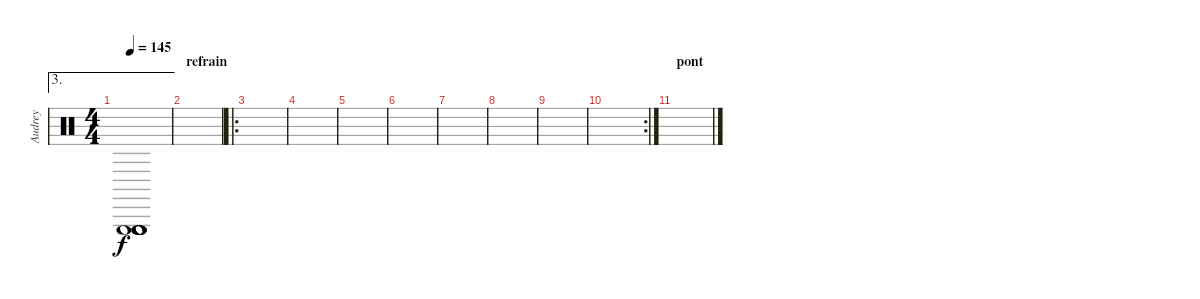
\track ("Audrey" "Audrey") {instrument percussion}
\staff {score}
\articulation defaults
\ae 3
\ts (4 4)
\tempo 145
\clef neutral
\ks c
("Triangle (hit)" "Triangle (hit)" "Triangle (hit)" "Triangle (hit)" "Triangle (hit)" "Triangle (hit)").1{dy f} |
\section ("" "refrain")
|
\ro
|
|
|
|
|
|
|
\rc 2
|
\section ("" "pont")
